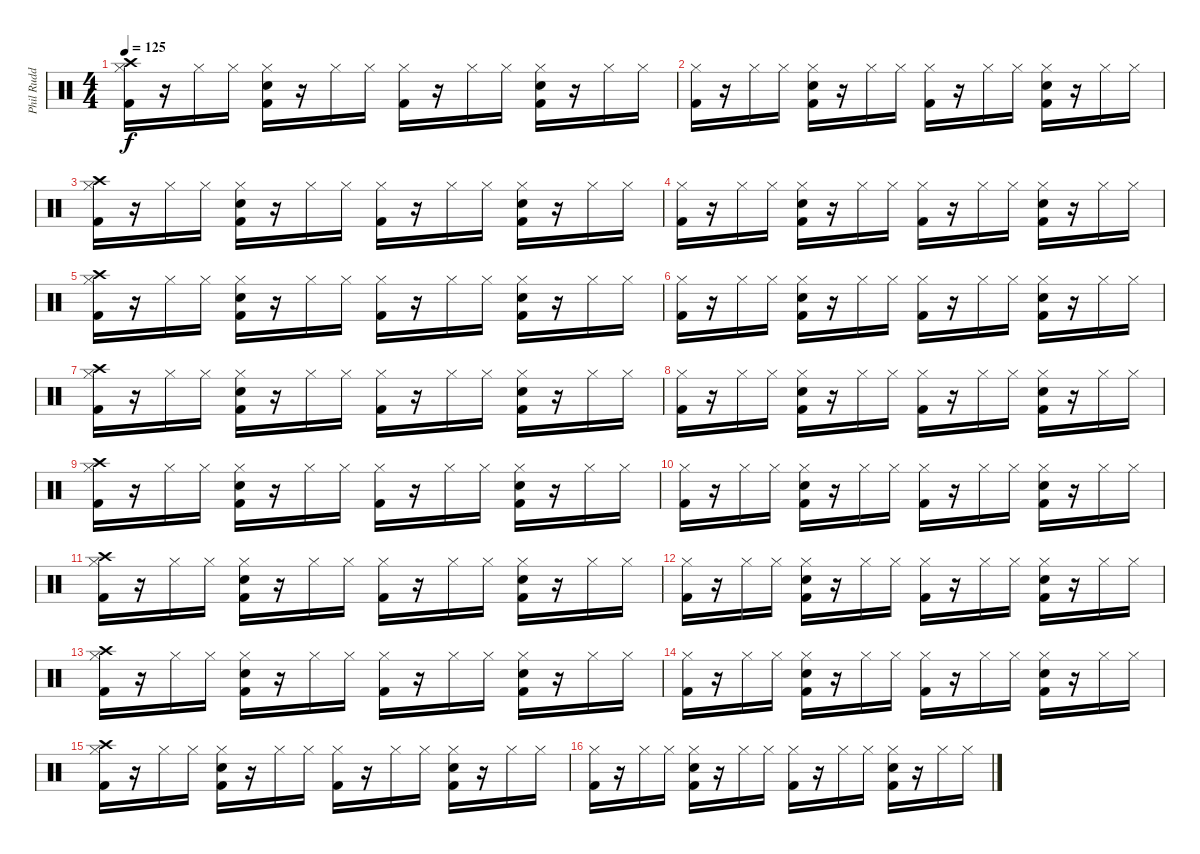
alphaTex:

\track ("Phil Rudd" "Phil Rudd") {instrument percussion}
\staff {score}
\articulation defaults
\ts (4 4)
\tempo 125
\clef neutral
\ks c
("Hi-Hat (closed)" "Crash high (hit)" "Kick (hit) 2").16{dy f} r.16 "Hi-Hat (closed)".16 "Hi-Hat (closed)".16 ("Hi-Hat (closed)" "Snare (hit) 2" "Kick (hit) 2").16 r.16 "Hi-Hat (closed)".16 "Hi-Hat (closed)".16 ("Hi-Hat (closed)" "Kick (hit) 2").16 r.16 "Hi-Hat (closed)".16 "Hi-Hat (closed)".16 ("Hi-Hat (closed)" "Snare (hit) 2" "Kick (hit) 2").16 r.16 "Hi-Hat (closed)".16 "Hi-Hat (closed)".16 |
("Hi-Hat (closed)" "Kick (hit) 2").16 r.16 "Hi-Hat (closed)".16 "Hi-Hat (closed)".16 ("Hi-Hat (closed)" "Snare (hit) 2" "Kick (hit) 2").16 r.16 "Hi-Hat (closed)".16 "Hi-Hat (closed)".16 ("Hi-Hat (closed)" "Kick (hit) 2").16 r.16 "Hi-Hat (closed)".16 "Hi-Hat (closed)".16 ("Hi-Hat (closed)" "Snare (hit) 2" "Kick (hit) 2").16 r.16 "Hi-Hat (closed)".16 "Hi-Hat (closed)".16 |
("Hi-Hat (closed)" "Crash high (hit)" "Kick (hit) 2").16 r.16 "Hi-Hat (closed)".16 "Hi-Hat (closed)".16 ("Hi-Hat (closed)" "Snare (hit) 2" "Kick (hit) 2").16 r.16 "Hi-Hat (closed)".16 "Hi-Hat (closed)".16 ("Hi-Hat (closed)" "Kick (hit) 2").16 r.16 "Hi-Hat (closed)".16 "Hi-Hat (closed)".16 ("Hi-Hat (closed)" "Snare (hit) 2" "Kick (hit) 2").16 r.16 "Hi-Hat (closed)".16 "Hi-Hat (closed)".16 |
("Hi-Hat (closed)" "Kick (hit) 2").16 r.16 "Hi-Hat (closed)".16 "Hi-Hat (closed)".16 ("Hi-Hat (closed)" "Snare (hit) 2" "Kick (hit) 2").16 r.16 "Hi-Hat (closed)".16 "Hi-Hat (closed)".16 ("Hi-Hat (closed)" "Kick (hit) 2").16 r.16 "Hi-Hat (closed)".16 "Hi-Hat (closed)".16 ("Hi-Hat (closed)" "Snare (hit) 2" "Kick (hit) 2").16 r.16 "Hi-Hat (closed)".16 "Hi-Hat (closed)".16 |
("Hi-Hat (closed)" "Crash high (hit)" "Kick (hit) 2").16 r.16 "Hi-Hat (closed)".16 "Hi-Hat (closed)".16 ("Hi-Hat (closed)" "Snare (hit) 2" "Kick (hit) 2").16 r.16 "Hi-Hat (closed)".16 "Hi-Hat (closed)".16 ("Hi-Hat (closed)" "Kick (hit) 2").16 r.16 "Hi-Hat (closed)".16 "Hi-Hat (closed)".16 ("Hi-Hat (closed)" "Snare (hit) 2" "Kick (hit) 2").16 r.16 "Hi-Hat (closed)".16 "Hi-Hat (closed)".16 |
("Hi-Hat (closed)" "Kick (hit) 2").16 r.16 "Hi-Hat (closed)".16 "Hi-Hat (closed)".16 ("Hi-Hat (closed)" "Snare (hit) 2" "Kick (hit) 2").16 r.16 "Hi-Hat (closed)".16 "Hi-Hat (closed)".16 ("Hi-Hat (closed)" "Kick (hit) 2").16 r.16 "Hi-Hat (closed)".16 "Hi-Hat (closed)".16 ("Hi-Hat (closed)" "Snare (hit) 2" "Kick (hit) 2").16 r.16 "Hi-Hat (closed)".16 "Hi-Hat (closed)".16 |
("Hi-Hat (closed)" "Crash high (hit)" "Kick (hit) 2").16 r.16 "Hi-Hat (closed)".16 "Hi-Hat (closed)".16 ("Hi-Hat (closed)" "Snare (hit) 2" "Kick (hit) 2").16 r.16 "Hi-Hat (closed)".16 "Hi-Hat (closed)".16 ("Hi-Hat (closed)" "Kick (hit) 2").16 r.16 "Hi-Hat (closed)".16 "Hi-Hat (closed)".16 ("Hi-Hat (closed)" "Snare (hit) 2" "Kick (hit) 2").16 r.16 "Hi-Hat (closed)".16 "Hi-Hat (closed)".16 |
("Hi-Hat (closed)" "Kick (hit) 2").16 r.16 "Hi-Hat (closed)".16 "Hi-Hat (closed)".16 ("Hi-Hat (closed)" "Snare (hit) 2" "Kick (hit) 2").16 r.16 "Hi-Hat (closed)".16 "Hi-Hat (closed)".16 ("Hi-Hat (closed)" "Kick (hit) 2").16 r.16 "Hi-Hat (closed)".16 "Hi-Hat (closed)".16 ("Hi-Hat (closed)" "Snare (hit) 2" "Kick (hit) 2").16 r.16 "Hi-Hat (closed)".16 "Hi-Hat (closed)".16 |
("Hi-Hat (closed)" "Crash high (hit)" "Kick (hit) 2").16 r.16 "Hi-Hat (closed)".16 "Hi-Hat (closed)".16 ("Hi-Hat (closed)" "Snare (hit) 2" "Kick (hit) 2").16 r.16 "Hi-Hat (closed)".16 "Hi-Hat (closed)".16 ("Hi-Hat (closed)" "Kick (hit) 2").16 r.16 "Hi-Hat (closed)".16 "Hi-Hat (closed)".16 ("Hi-Hat (closed)" "Snare (hit) 2" "Kick (hit) 2").16 r.16 "Hi-Hat (closed)".16 "Hi-Hat (closed)".16 |
("Hi-Hat (closed)" "Kick (hit) 2").16 r.16 "Hi-Hat (closed)".16 "Hi-Hat (closed)".16 ("Hi-Hat (closed)" "Snare (hit) 2" "Kick (hit) 2").16 r.16 "Hi-Hat (closed)".16 "Hi-Hat (closed)".16 ("Hi-Hat (closed)" "Kick (hit) 2").16 r.16 "Hi-Hat (closed)".16 "Hi-Hat (closed)".16 ("Hi-Hat (closed)" "Snare (hit) 2" "Kick (hit) 2").16 r.16 "Hi-Hat (closed)".16 "Hi-Hat (closed)".16 |
("Hi-Hat (closed)" "Crash high (hit)" "Kick (hit) 2").16 r.16 "Hi-Hat (closed)".16 "Hi-Hat (closed)".16 ("Hi-Hat (closed)" "Snare (hit) 2" "Kick (hit) 2").16 r.16 "Hi-Hat (closed)".16 "Hi-Hat (closed)".16 ("Hi-Hat (closed)" "Kick (hit) 2").16 r.16 "Hi-Hat (closed)".16 "Hi-Hat (closed)".16 ("Hi-Hat (closed)" "Snare (hit) 2" "Kick (hit) 2").16 r.16 "Hi-Hat (closed)".16 "Hi-Hat (closed)".16 |
("Hi-Hat (closed)" "Kick (hit) 2").16 r.16 "Hi-Hat (closed)".16 "Hi-Hat (closed)".16 ("Hi-Hat (closed)" "Snare (hit) 2" "Kick (hit) 2").16 r.16 "Hi-Hat (closed)".16 "Hi-Hat (closed)".16 ("Hi-Hat (closed)" "Kick (hit) 2").16 r.16 "Hi-Hat (closed)".16 "Hi-Hat (closed)".16 ("Hi-Hat (closed)" "Snare (hit) 2" "Kick (hit) 2").16 r.16 "Hi-Hat (closed)".16 "Hi-Hat (closed)".16 |
("Hi-Hat (closed)" "Crash high (hit)" "Kick (hit) 2").16 r.16 "Hi-Hat (closed)".16 "Hi-Hat (closed)".16 ("Hi-Hat (closed)" "Snare (hit) 2" "Kick (hit) 2").16 r.16 "Hi-Hat (closed)".16 "Hi-Hat (closed)".16 ("Hi-Hat (closed)" "Kick (hit) 2").16 r.16 "Hi-Hat (closed)".16 "Hi-Hat (closed)".16 ("Hi-Hat (closed)" "Snare (hit) 2" "Kick (hit) 2").16 r.16 "Hi-Hat (closed)".16 "Hi-Hat (closed)".16 |
("Hi-Hat (closed)" "Kick (hit) 2").16 r.16 "Hi-Hat (closed)".16 "Hi-Hat (closed)".16 ("Hi-Hat (closed)" "Snare (hit) 2" "Kick (hit) 2").16 r.16 "Hi-Hat (closed)".16 "Hi-Hat (closed)".16 ("Hi-Hat (closed)" "Kick (hit) 2").16 r.16 "Hi-Hat (closed)".16 "Hi-Hat (closed)".16 ("Hi-Hat (closed)" "Snare (hit) 2" "Kick (hit) 2").16 r.16 "Hi-Hat (closed)".16 "Hi-Hat (closed)".16 |
("Hi-Hat (closed)" "Crash high (hit)" "Kick (hit) 2").16 r.16 "Hi-Hat (closed)".16 "Hi-Hat (closed)".16 ("Hi-Hat (closed)" "Snare (hit) 2" "Kick (hit) 2").16 r.16 "Hi-Hat (closed)".16 "Hi-Hat (closed)".16 ("Hi-Hat (closed)" "Kick (hit) 2").16 r.16 "Hi-Hat (closed)".16 "Hi-Hat (closed)".16 ("Hi-Hat (closed)" "Snare (hit) 2" "Kick (hit) 2").16 r.16 "Hi-Hat (closed)".16 "Hi-Hat (closed)".16 |
("Hi-Hat (closed)" "Kick (hit) 2").16 r.16 "Hi-Hat (closed)".16 "Hi-Hat (closed)".16 ("Hi-Hat (closed)" "Snare (hit) 2" "Kick (hit) 2").16 r.16 "Hi-Hat (closed)".16 "Hi-Hat (closed)".16 ("Hi-Hat (closed)" "Kick (hit) 2").16 r.16 "Hi-Hat (closed)".16 "Hi-Hat (closed)".16 ("Hi-Hat (closed)" "Snare (hit) 2" "Kick (hit) 2").16 r.16 "Hi-Hat (closed)".16 "Hi-Hat (closed)".16
